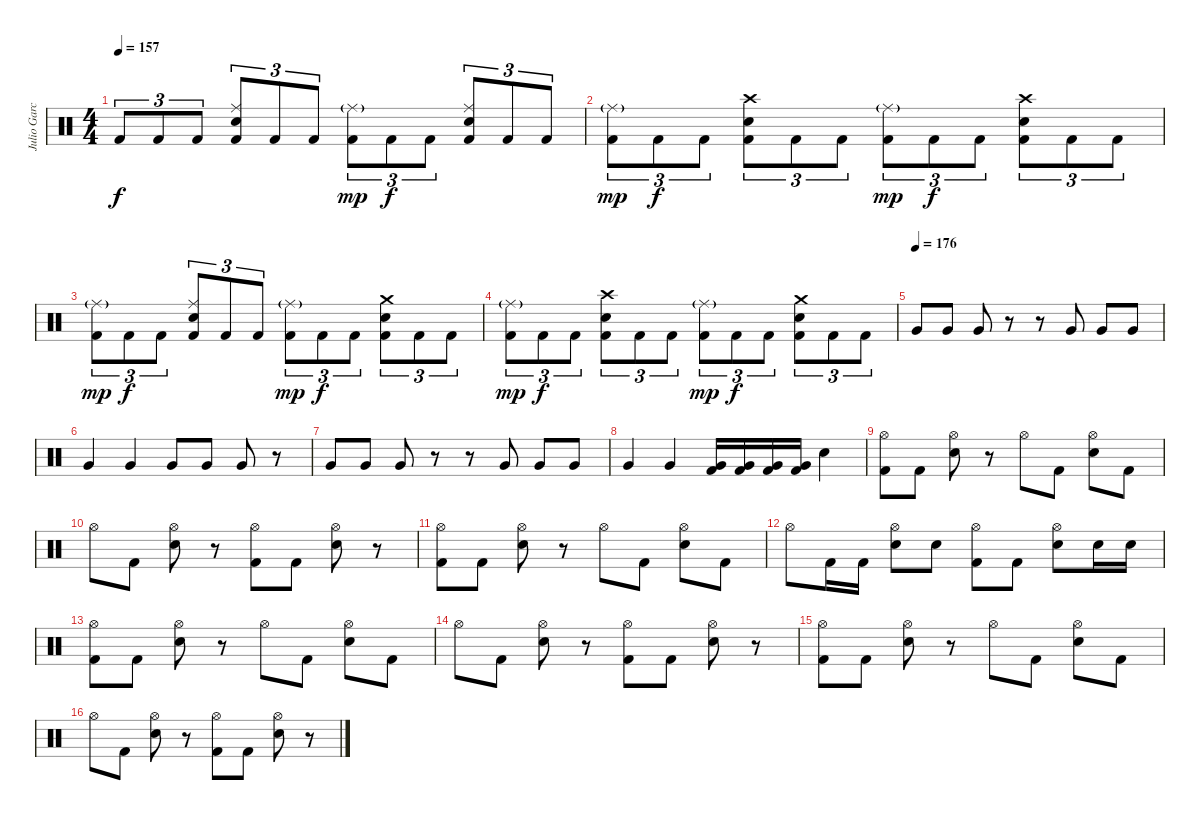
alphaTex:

\track ("Julio Garcia" "Julio Garc") {instrument percussion}
\staff {score}
\articulation defaults
\ts (4 4)
\tempo 157
\clef neutral
\ks c "Kick (hit) 2".8{tu (3 2) dy f} "Kick (hit) 2".8{tu (3 2)} "Kick (hit) 2".8{tu (3 2)}
("Ride (middle)" "Electric Snare (hit)" "Kick (hit) 2").8{tu (3 2)} "Kick (hit) 2".8{tu (3 2)} "Kick (hit) 2".8{tu (3 2)} ("Ride (middle)"{g} "Kick (hit) 2").8{tu (3 2) dy mp} "Kick (hit) 2".8{tu (3 2) dy f} "Kick (hit) 2".8{tu (3 2)} ("Ride (middle)" "Electric Snare (hit)" "Kick (hit) 2").8{tu (3 2)} "Kick (hit) 2".8{tu (3 2)} "Kick (hit) 2".8{tu (3 2)} |
("Ride (middle)"{g} "Kick (hit) 2").8{tu (3 2) dy mp} "Kick (hit) 2".8{tu (3 2) dy f} "Kick (hit) 2".8{tu (3 2)} ("Crash high (hit)" "Electric Snare (hit)" "Kick (hit) 2").8{tu (3 2)} "Kick (hit) 2".8{tu (3 2)} "Kick (hit) 2".8{tu (3 2)} ("Ride (middle)"{g} "Kick (hit) 2").8{tu (3 2) dy mp} "Kick (hit) 2".8{tu (3 2) dy f} "Kick (hit) 2".8{tu (3 2)} ("Crash high (hit)" "Electric Snare (hit)" "Kick (hit) 2").8{tu (3 2)} "Kick (hit) 2".8{tu (3 2)} "Kick (hit) 2".8{tu (3 2)} |
("Ride (middle)"{g} "Kick (hit) 2").8{tu (3 2) dy mp} "Kick (hit) 2".8{tu (3 2) dy f} "Kick (hit) 2".8{tu (3 2)} ("Ride (middle)" "Electric Snare (hit)" "Kick (hit) 2").8{tu (3 2)} "Kick (hit) 2".8{tu (3 2)} "Kick (hit) 2".8{tu (3 2)} ("Ride (middle)"{g} "Kick (hit) 2").8{tu (3 2) dy mp} "Kick (hit) 2".8{tu (3 2) dy f} "Kick (hit) 2".8{tu (3 2)} ("Crash medium (hit)" "Electric Snare (hit)" "Kick (hit) 2").8{tu (3 2)} "Kick (hit) 2".8{tu (3 2)} "Kick (hit) 2".8{tu (3 2)} |
("Ride (middle)"{g} "Kick (hit) 2").8{tu (3 2) dy mp} "Kick (hit) 2".8{tu (3 2) dy f} "Kick (hit) 2".8{tu (3 2)} ("Crash high (hit)" "Electric Snare (hit)" "Kick (hit) 2").8{tu (3 2)} "Kick (hit) 2".8{tu (3 2)} "Kick (hit) 2".8{tu (3 2)} ("Ride (middle)"{g} "Kick (hit) 2").8{tu (3 2) dy mp} "Kick (hit) 2".8{tu (3 2) dy f} "Kick (hit) 2".8{tu (3 2)} ("Crash medium (hit)" "Electric Snare (hit)" "Kick (hit) 2").8{tu (3 2)} "Kick (hit) 2".8{tu (3 2)} "Kick (hit) 2".8{tu (3 2)} |
\tempo (176)
"Very Low Tom (hit)".8 "Very Low Tom (hit)".8 "Very Low Tom (hit)".8 r.8 r.8 "Very Low Tom (hit)".8 "Very Low Tom (hit)".8 "Very Low Tom (hit)".8 |
"Very Low Tom (hit)".4 "Very Low Tom (hit)".4 "Very Low Tom (hit)".8 "Very Low Tom (hit)".8 "Very Low Tom (hit)".8 r.8 |
"Very Low Tom (hit)".8 "Very Low Tom (hit)".8 "Very Low Tom (hit)".8 r.8 r.8 "Very Low Tom (hit)".8 "Very Low Tom (hit)".8 "Very Low Tom (hit)".8 |
"Very Low Tom (hit)".4 "Very Low Tom (hit)".4 ("Very Low Tom (hit)" "Kick (hit) 2").16 ("Very Low Tom (hit)" "Kick (hit) 2").16 ("Very Low Tom (hit)" "Kick (hit) 2").16 ("Very Low Tom (hit)" "Kick (hit) 2").16 "Electric Snare (hit)".4 |
("Hi-Hat (open)" "Kick (hit) 2").8 "Kick (hit) 2".8 ("Hi-Hat (open)" "Electric Snare (hit)").8 r.8 "Hi-Hat (open)".8 "Kick (hit) 2".8 ("Hi-Hat (open)" "Electric Snare (hit)").8 "Kick (hit) 2".8 |
"Hi-Hat (open)".8 "Kick (hit) 2".8 ("Hi-Hat (open)" "Electric Snare (hit)").8 r.8 ("Hi-Hat (open)" "Kick (hit) 2").8 "Kick (hit) 2".8 ("Hi-Hat (open)" "Electric Snare (hit)").8 r.8 |
("Hi-Hat (open)" "Kick (hit) 2").8 "Kick (hit) 2".8 ("Hi-Hat (open)" "Electric Snare (hit)").8 r.8 "Hi-Hat (open)".8 "Kick (hit) 2".8 ("Hi-Hat (open)" "Electric Snare (hit)").8 "Kick (hit) 2".8 |
"Hi-Hat (open)".8 "Kick (hit) 2".16 "Kick (hit) 2".16 ("Hi-Hat (open)" "Electric Snare (hit)").8 "Electric Snare (hit)".8 ("Hi-Hat (open)" "Kick (hit) 2").8 "Kick (hit) 2".8 ("Hi-Hat (open)" "Electric Snare (hit)").8 "Electric Snare (hit)".16 "Electric Snare (hit)".16 |
("Hi-Hat (open)" "Kick (hit) 2").8 "Kick (hit) 2".8 ("Hi-Hat (open)" "Electric Snare (hit)").8 r.8 "Hi-Hat (open)".8 "Kick (hit) 2".8 ("Hi-Hat (open)" "Electric Snare (hit)").8 "Kick (hit) 2".8 |
"Hi-Hat (open)".8 "Kick (hit) 2".8 ("Hi-Hat (open)" "Electric Snare (hit)").8 r.8 ("Hi-Hat (open)" "Kick (hit) 2").8 "Kick (hit) 2".8 ("Hi-Hat (open)" "Electric Snare (hit)").8 r.8 |
("Hi-Hat (open)" "Kick (hit) 2").8 "Kick (hit) 2".8 ("Hi-Hat (open)" "Electric Snare (hit)").8 r.8 "Hi-Hat (open)".8 "Kick (hit) 2".8 ("Hi-Hat (open)" "Electric Snare (hit)").8 "Kick (hit) 2".8 |
"Hi-Hat (open)".8 "Kick (hit) 2".8 ("Hi-Hat (open)" "Electric Snare (hit)").8 r.8 ("Hi-Hat (open)" "Kick (hit) 2").8 "Kick (hit) 2".8 ("Hi-Hat (open)" "Electric Snare (hit)").8 r.8
